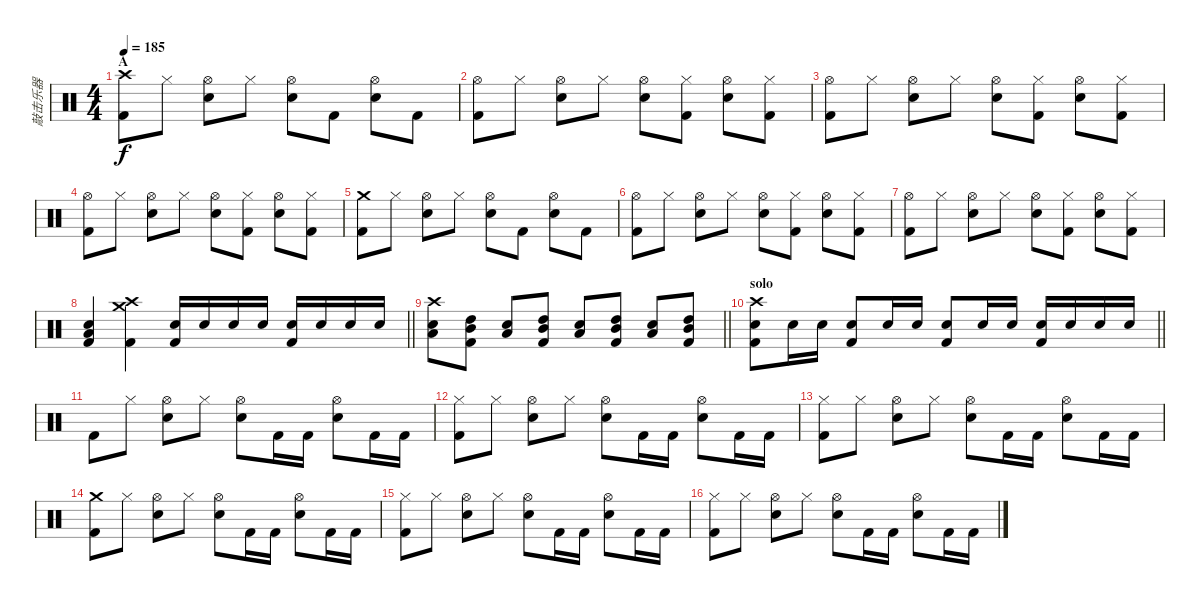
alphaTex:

\track ("敲击乐器" "敲击乐器") {instrument percussion}
\staff {score}
\articulation defaults
\ts (4 4)
\section ("" "A")
\tempo 185
\clef neutral
\ks c
("Crash high (hit)" "Kick (hit) 2").8{dy f} "Hi-Hat (closed)".8 ("Hi-Hat (open)" "Snare (hit) 2").8 "Hi-Hat (closed)".8 ("Hi-Hat (open)" "Snare (hit) 2").8 "Kick (hit) 2".8 ("Hi-Hat (open)" "Snare (hit) 2").8 "Kick (hit) 2".8 |
("Hi-Hat (open)" "Kick (hit) 2").8 "Hi-Hat (closed)".8 ("Hi-Hat (open)" "Snare (hit) 2").8 "Hi-Hat (closed)".8 ("Hi-Hat (open)" "Snare (hit) 2").8 ("Hi-Hat (closed)" "Kick (hit) 2").8 ("Hi-Hat (open)" "Snare (hit) 2").8 ("Hi-Hat (closed)" "Kick (hit) 2").8 |
("Hi-Hat (open)" "Kick (hit) 2").8 "Hi-Hat (closed)".8 ("Hi-Hat (open)" "Snare (hit) 2").8 "Hi-Hat (closed)".8 ("Hi-Hat (open)" "Snare (hit) 2").8 ("Hi-Hat (closed)" "Kick (hit) 2").8 ("Hi-Hat (open)" "Snare (hit) 2").8 ("Hi-Hat (closed)" "Kick (hit) 2").8 |
("Hi-Hat (open)" "Kick (hit) 2").8 "Hi-Hat (closed)".8 ("Hi-Hat (open)" "Snare (hit) 2").8 "Hi-Hat (closed)".8 ("Hi-Hat (open)" "Snare (hit) 2").8 ("Hi-Hat (closed)" "Kick (hit) 2").8 ("Hi-Hat (open)" "Snare (hit) 2").8 ("Hi-Hat (closed)" "Kick (hit) 2").8 |
("Crash medium (hit)" "Kick (hit) 2").8 "Hi-Hat (closed)".8 ("Hi-Hat (open)" "Snare (hit) 2").8 "Hi-Hat (closed)".8 ("Hi-Hat (open)" "Snare (hit) 2").8 "Kick (hit) 2".8 ("Hi-Hat (open)" "Snare (hit) 2").8 "Kick (hit) 2".8 |
("Hi-Hat (open)" "Kick (hit) 2").8 "Hi-Hat (closed)".8 ("Hi-Hat (open)" "Snare (hit) 2").8 "Hi-Hat (closed)".8 ("Hi-Hat (open)" "Snare (hit) 2").8 ("Hi-Hat (closed)" "Kick (hit) 2").8 ("Hi-Hat (open)" "Snare (hit) 2").8 ("Hi-Hat (closed)" "Kick (hit) 2").8 |
("Hi-Hat (open)" "Kick (hit) 2").8 "Hi-Hat (closed)".8 ("Hi-Hat (open)" "Snare (hit) 2").8 "Hi-Hat (closed)".8 ("Hi-Hat (open)" "Snare (hit) 2").8 ("Hi-Hat (closed)" "Kick (hit) 2").8 ("Hi-Hat (open)" "Snare (hit) 2").8 ("Hi-Hat (closed)" "Kick (hit) 2").8 |
\barLineRight lightlight
("Low Tom (hit)" "Snare (hit) 2" "Kick (hit) 2").4 ("Crash medium (hit)" "Crash high (hit)" "Kick (hit) 2").4 ("Snare (hit) 2" "Kick (hit) 2").16 "Snare (hit) 2".16 "Snare (hit) 2".16 "Snare (hit) 2".16 ("Snare (hit) 2" "Kick (hit) 2").16 "Snare (hit) 2".16 "Snare (hit) 2".16 "Snare (hit) 2".16 |
\barLineRight lightlight
("Crash high (hit)" "Electric Snare (hit)" "Low Tom (hit)").8 ("High Tom (hit)" "Mid Tom (hit)" "Kick (hit) 2").8 ("Electric Snare (hit)" "Low Tom (hit)").8 ("High Tom (hit)" "Mid Tom (hit)" "Kick (hit) 2").8 ("Electric Snare (hit)" "Low Tom (hit)").8 ("High Tom (hit)" "Mid Tom (hit)" "Kick (hit) 2").8 ("Electric Snare (hit)" "Low Tom (hit)").8 ("High Tom (hit)" "Mid Tom (hit)" "Kick (hit) 2").8 |
\section ("" "solo")
\barLineRight lightlight
("Crash high (hit)" "Snare (hit) 2" "Kick (hit) 2").8 "Snare (hit) 2".16 "Snare (hit) 2".16 ("Snare (hit) 2" "Kick (hit) 2").8 "Snare (hit) 2".16 "Snare (hit) 2".16 ("Snare (hit) 2" "Kick (hit) 2").8 "Snare (hit) 2".16 "Snare (hit) 2".16 ("Snare (hit) 2" "Kick (hit) 2").16 "Snare (hit) 2".16 "Snare (hit) 2".16 "Snare (hit) 2".16 |
"Kick (hit) 2".8 "Hi-Hat (closed)".8 ("Hi-Hat (open)" "Snare (hit) 2").8 "Hi-Hat (closed)".8 ("Hi-Hat (open)" "Snare (hit) 2").8 "Kick (hit) 2".16 "Kick (hit) 2".16 ("Hi-Hat (open)" "Snare (hit) 2").8 "Kick (hit) 2".16 "Kick (hit) 2".16 |
("Hi-Hat (closed)" "Kick (hit) 2").8 "Hi-Hat (closed)".8 ("Hi-Hat (open)" "Snare (hit) 2").8 "Hi-Hat (closed)".8 ("Hi-Hat (open)" "Snare (hit) 2").8 "Kick (hit) 2".16 "Kick (hit) 2".16 ("Hi-Hat (open)" "Snare (hit) 2").8 "Kick (hit) 2".16 "Kick (hit) 2".16 |
("Hi-Hat (closed)" "Kick (hit) 2").8 "Hi-Hat (closed)".8 ("Hi-Hat (open)" "Snare (hit) 2").8 "Hi-Hat (closed)".8 ("Hi-Hat (open)" "Snare (hit) 2").8 "Kick (hit) 2".16 "Kick (hit) 2".16 ("Hi-Hat (open)" "Snare (hit) 2").8 "Kick (hit) 2".16 "Kick (hit) 2".16 |
("Crash medium (hit)" "Kick (hit) 2").8 "Hi-Hat (closed)".8 ("Hi-Hat (open)" "Snare (hit) 2").8 "Hi-Hat (closed)".8 ("Hi-Hat (open)" "Snare (hit) 2").8 "Kick (hit) 2".16 "Kick (hit) 2".16 ("Hi-Hat (open)" "Snare (hit) 2").8 "Kick (hit) 2".16 "Kick (hit) 2".16 |
("Hi-Hat (closed)" "Kick (hit) 2").8 "Hi-Hat (closed)".8 ("Hi-Hat (open)" "Snare (hit) 2").8 "Hi-Hat (closed)".8 ("Hi-Hat (open)" "Snare (hit) 2").8 "Kick (hit) 2".16 "Kick (hit) 2".16 ("Hi-Hat (open)" "Snare (hit) 2").8 "Kick (hit) 2".16 "Kick (hit) 2".16 |
("Hi-Hat (closed)" "Kick (hit) 2").8 "Hi-Hat (closed)".8 ("Hi-Hat (open)" "Snare (hit) 2").8 "Hi-Hat (closed)".8 ("Hi-Hat (open)" "Snare (hit) 2").8 "Kick (hit) 2".16 "Kick (hit) 2".16 ("Hi-Hat (open)" "Snare (hit) 2").8 "Kick (hit) 2".16 "Kick (hit) 2".16
